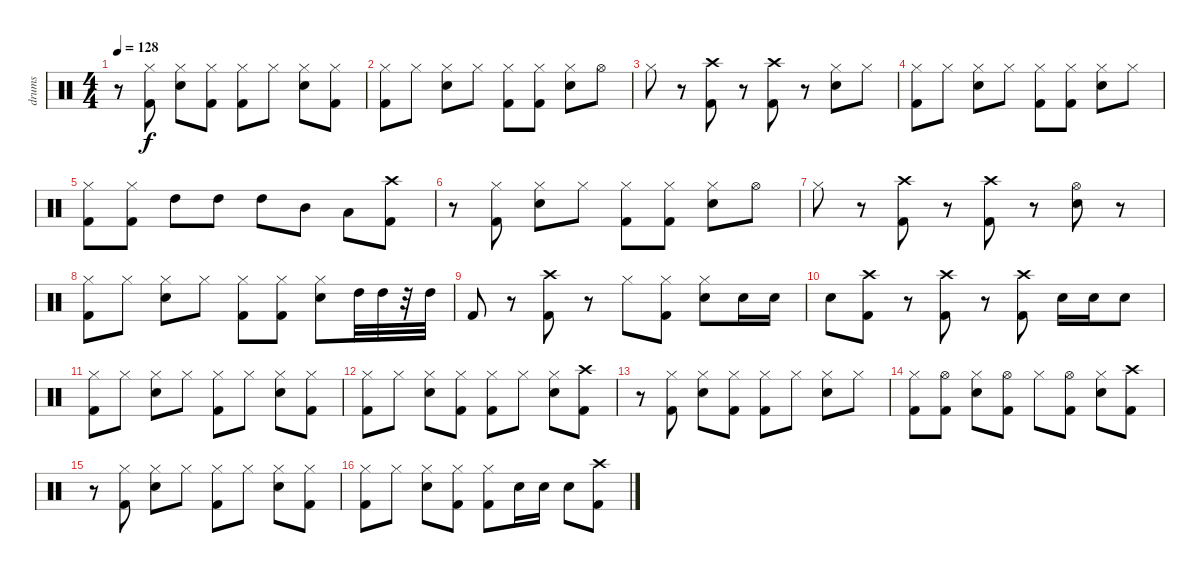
\track ("drums" "drums") {instrument percussion}
\staff {score}
\articulation defaults
\ts (4 4)
\tempo 128
\clef neutral
\ks c
r.8{dy f} ("Kick (hit) 2" "Hi-Hat (closed)").8 ("Snare (hit) 2" "Hi-Hat (closed)").8 ("Kick (hit) 2" "Hi-Hat (closed)").8 ("Kick (hit) 2" "Hi-Hat (closed)").8 "Hi-Hat (closed)".8 ("Snare (hit) 2" "Hi-Hat (closed)").8 ("Kick (hit) 2" "Hi-Hat (closed)").8 |
("Kick (hit) 2" "Hi-Hat (closed)").8 "Hi-Hat (closed)".8 ("Snare (hit) 2" "Hi-Hat (closed)").8 "Hi-Hat (closed)".8 ("Kick (hit) 2" "Hi-Hat (closed)").8 ("Kick (hit) 2" "Hi-Hat (closed)").8 ("Snare (hit) 2" "Hi-Hat (closed)").8 "Hi-Hat (open)".8 |
"Hi-Hat (closed)".8 r.8 ("Kick (hit) 2" "Crash high (hit)").8 r.8 ("Crash high (hit)" "Kick (hit) 2").8 r.8 ("Snare (hit) 2" "Hi-Hat (closed)").8 "Hi-Hat (closed)".8 |
("Kick (hit) 2" "Hi-Hat (closed)").8 "Hi-Hat (closed)".8 ("Snare (hit) 2" "Hi-Hat (closed)").8 "Hi-Hat (closed)".8 ("Kick (hit) 2" "Hi-Hat (closed)").8 ("Kick (hit) 2" "Hi-Hat (closed)").8 ("Snare (hit) 2" "Hi-Hat (closed)").8 "Hi-Hat (closed)".8 |
("Kick (hit) 2" "Hi-Hat (closed)").8 ("Kick (hit) 2" "Hi-Hat (closed)").8 "High Tom (hit)".8 "High Tom (hit)".8 "High Tom (hit)".8 "Mid Tom (hit)".8 "Low Tom (hit)".8 ("Kick (hit) 2" "Crash high (hit)").8 |
r.8 ("Kick (hit) 2" "Hi-Hat (closed)").8 ("Snare (hit) 2" "Hi-Hat (closed)").8 "Hi-Hat (closed)".8 ("Kick (hit) 2" "Hi-Hat (closed)").8 ("Kick (hit) 2" "Hi-Hat (closed)").8 ("Snare (hit) 2" "Hi-Hat (closed)").8 "Hi-Hat (open)".8 |
"Hi-Hat (closed)".8 r.8 ("Kick (hit) 2" "Crash high (hit)").8 r.8 ("Kick (hit) 2" "Crash high (hit)").8 r.8 ("Snare (hit) 2" "Hi-Hat (open)").8 r.8 |
("Kick (hit) 2" "Hi-Hat (closed)").8 "Hi-Hat (closed)".8 ("Snare (hit) 2" "Hi-Hat (closed)").8 "Hi-Hat (closed)".8 ("Kick (hit) 2" "Hi-Hat (closed)").8 ("Kick (hit) 2" "Hi-Hat (closed)").8 ("Snare (hit) 2" "Hi-Hat (closed)").8 "High Tom (hit)".32 "High Tom (hit)".32 r.32 "High Tom (hit)".32 |
"Kick (hit) 2".8 r.8 ("Crash high (hit)" "Kick (hit) 2").8 r.8 "Hi-Hat (closed)".8 ("Kick (hit) 2" "Hi-Hat (closed)").8 ("Snare (hit) 2" "Hi-Hat (closed)").8 "Snare (hit) 2".16 "Snare (hit) 2".16 |
"Snare (hit) 2".8 ("Crash high (hit)" "Kick (hit) 2").8 r.8 ("Crash high (hit)" "Kick (hit) 2").8 r.8 ("Crash high (hit)" "Kick (hit) 2").8 "Snare (hit) 2".16 "Snare (hit) 2".16 "Snare (hit) 2".8 |
("Kick (hit) 2" "Hi-Hat (closed)").8 "Hi-Hat (closed)".8 ("Snare (hit) 2" "Hi-Hat (closed)").8 "Hi-Hat (closed)".8 ("Kick (hit) 2" "Hi-Hat (closed)").8 "Hi-Hat (closed)".8 ("Snare (hit) 2" "Hi-Hat (closed)").8 ("Kick (hit) 2" "Hi-Hat (closed)").8 |
("Kick (hit) 2" "Hi-Hat (closed)").8 "Hi-Hat (closed)".8 ("Snare (hit) 2" "Hi-Hat (closed)").8 ("Kick (hit) 2" "Hi-Hat (closed)").8 ("Kick (hit) 2" "Hi-Hat (closed)").8 "Hi-Hat (closed)".8 ("Snare (hit) 2" "Hi-Hat (closed)").8 ("Kick (hit) 2" "Crash high (hit)").8 |
r.8 ("Kick (hit) 2" "Hi-Hat (closed)").8 ("Snare (hit) 2" "Hi-Hat (closed)").8 ("Kick (hit) 2" "Hi-Hat (closed)").8 ("Kick (hit) 2" "Hi-Hat (closed)").8 "Hi-Hat (closed)".8 ("Snare (hit) 2" "Hi-Hat (closed)").8 "Hi-Hat (closed)".8 |
("Kick (hit) 2" "Hi-Hat (closed)").8 ("Kick (hit) 2" "Hi-Hat (open)").8 ("Snare (hit) 2" "Hi-Hat (closed)").8 ("Kick (hit) 2" "Hi-Hat (open)").8 "Hi-Hat (closed)".8 ("Kick (hit) 2" "Hi-Hat (open)").8 ("Snare (hit) 2" "Hi-Hat (closed)").8 ("Kick (hit) 2" "Crash high (hit)").8 |
r.8 ("Kick (hit) 2" "Hi-Hat (closed)").8 ("Snare (hit) 2" "Hi-Hat (closed)").8 "Hi-Hat (closed)".8 ("Kick (hit) 2" "Hi-Hat (closed)").8 "Hi-Hat (closed)".8 ("Snare (hit) 2" "Hi-Hat (closed)").8 ("Kick (hit) 2" "Hi-Hat (closed)").8 |
("Kick (hit) 2" "Hi-Hat (closed)").8 "Hi-Hat (closed)".8 ("Snare (hit) 2" "Hi-Hat (closed)").8 ("Kick (hit) 2" "Hi-Hat (closed)").8 ("Kick (hit) 2" "Hi-Hat (closed)").8 "Snare (hit) 2".16 "Snare (hit) 2".16 "Snare (hit) 2".8 ("Kick (hit) 2" "Crash high (hit)").8
